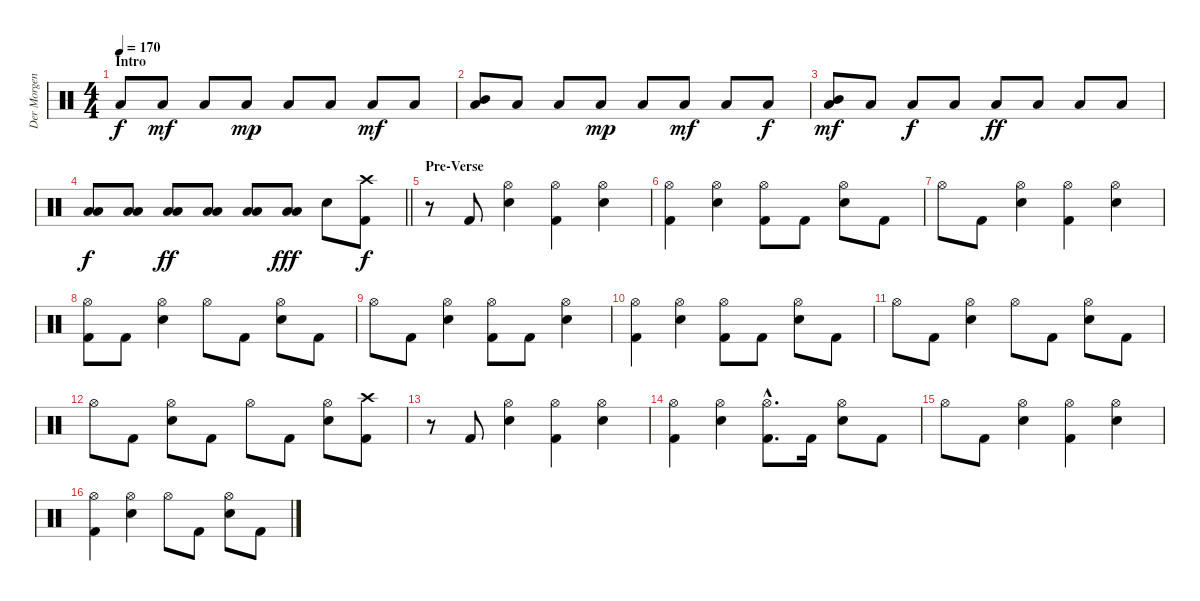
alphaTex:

\track ("Der Morgenstern" "Der Morgen") {instrument percussion}
\staff {score}
\articulation defaults
\ts (4 4)
\section ("" "Intro")
\tempo 170
\clef neutral
\ks c "Low Tom (hit)".8{dy f} "Low Tom (hit)".8{dy mf} "Low Tom (hit)".8 "Low Tom (hit)".8{dy mp} "Low Tom (hit)".8 "Low Tom (hit)".8 "Low Tom (hit)".8{dy mf} "Low Tom (hit)".8
|
("Mid Tom (hit)" "Low Tom (hit)").8 "Low Tom (hit)".8 "Low Tom (hit)".8 "Low Tom (hit)".8{dy mp} "Low Tom (hit)".8 "Low Tom (hit)".8{dy mf} "Low Tom (hit)".8 "Low Tom (hit)".8{dy f} |
("Mid Tom (hit)" "Low Tom (hit)").8{dy mf} "Low Tom (hit)".8 "Low Tom (hit)".8{dy f} "Low Tom (hit)".8 "Low Tom (hit)".8{dy ff} "Low Tom (hit)".8 "Low Tom (hit)".8 "Low Tom (hit)".8 |
\barLineRight lightlight
("Low Tom (hit)" "Low Tom (hit)").8{dy f} ("Low Tom (hit)" "Low Tom (hit)").8 ("Low Tom (hit)" "Low Tom (hit)").8{dy ff} ("Low Tom (hit)" "Low Tom (hit)").8 ("Low Tom (hit)" "Low Tom (hit)").8 ("Low Tom (hit)" "Low Tom (hit)").8{dy fff} "Electric Snare (hit)".8 ("Crash high (hit)" "Kick (hit) 2").8{dy f} |
\section ("" "Pre-Verse")
r.8 "Kick (hit) 2".8 ("Hi-Hat (open)" "Electric Snare (hit)").4 ("Hi-Hat (open)" "Kick (hit) 2").4 ("Hi-Hat (open)" "Electric Snare (hit)").4 |
("Hi-Hat (open)" "Kick (hit) 2").4 ("Hi-Hat (open)" "Electric Snare (hit)").4 ("Hi-Hat (open)" "Kick (hit) 2").8 "Kick (hit) 2".8 ("Hi-Hat (open)" "Electric Snare (hit)").8 "Kick (hit) 2".8 |
"Hi-Hat (open)".8 "Kick (hit) 2".8 ("Hi-Hat (open)" "Electric Snare (hit)").4 ("Hi-Hat (open)" "Kick (hit) 2").4 ("Hi-Hat (open)" "Electric Snare (hit)").4 |
("Hi-Hat (open)" "Kick (hit) 2").8 "Kick (hit) 2".8 ("Hi-Hat (open)" "Electric Snare (hit)").4 "Hi-Hat (open)".8 "Kick (hit) 2".8 ("Hi-Hat (open)" "Electric Snare (hit)").8 "Kick (hit) 2".8 |
"Hi-Hat (open)".8 "Kick (hit) 2".8 ("Hi-Hat (open)" "Electric Snare (hit)").4 ("Hi-Hat (open)" "Kick (hit) 2").8 "Kick (hit) 2".8 ("Hi-Hat (open)" "Electric Snare (hit)").4 |
("Hi-Hat (open)" "Kick (hit) 2").4 ("Hi-Hat (open)" "Electric Snare (hit)").4 ("Hi-Hat (open)" "Kick (hit) 2").8 "Kick (hit) 2".8 ("Hi-Hat (open)" "Electric Snare (hit)").8 "Kick (hit) 2".8 |
"Hi-Hat (open)".8 "Kick (hit) 2".8 ("Hi-Hat (open)" "Electric Snare (hit)").4 "Hi-Hat (open)".8 "Kick (hit) 2".8 ("Hi-Hat (open)" "Electric Snare (hit)").8 "Kick (hit) 2".8 |
"Hi-Hat (open)".8 "Kick (hit) 2".8 ("Hi-Hat (open)" "Electric Snare (hit)").8 "Kick (hit) 2".8 "Hi-Hat (open)".8 "Kick (hit) 2".8 ("Hi-Hat (open)" "Electric Snare (hit)").8 ("Crash high (hit)" "Kick (hit) 2").8 |
r.8 "Kick (hit) 2".8 ("Hi-Hat (open)" "Electric Snare (hit)").4 ("Hi-Hat (open)" "Kick (hit) 2").4 ("Hi-Hat (open)" "Electric Snare (hit)").4 |
("Hi-Hat (open)" "Kick (hit) 2").4 ("Hi-Hat (open)" "Electric Snare (hit)").4 ("Hi-Hat (open)"{hac} "Kick (hit) 2"{hac}).8{d} "Kick (hit) 2".16 ("Hi-Hat (open)" "Electric Snare (hit)").8 "Kick (hit) 2".8 |
"Hi-Hat (open)".8 "Kick (hit) 2".8 ("Hi-Hat (open)" "Electric Snare (hit)").4 ("Hi-Hat (open)" "Kick (hit) 2").4 ("Hi-Hat (open)" "Electric Snare (hit)").4 |
("Hi-Hat (open)" "Kick (hit) 2").4 ("Hi-Hat (open)" "Electric Snare (hit)").4 "Hi-Hat (open)".8 "Kick (hit) 2".8 ("Hi-Hat (open)" "Electric Snare (hit)").8 "Kick (hit) 2".8
